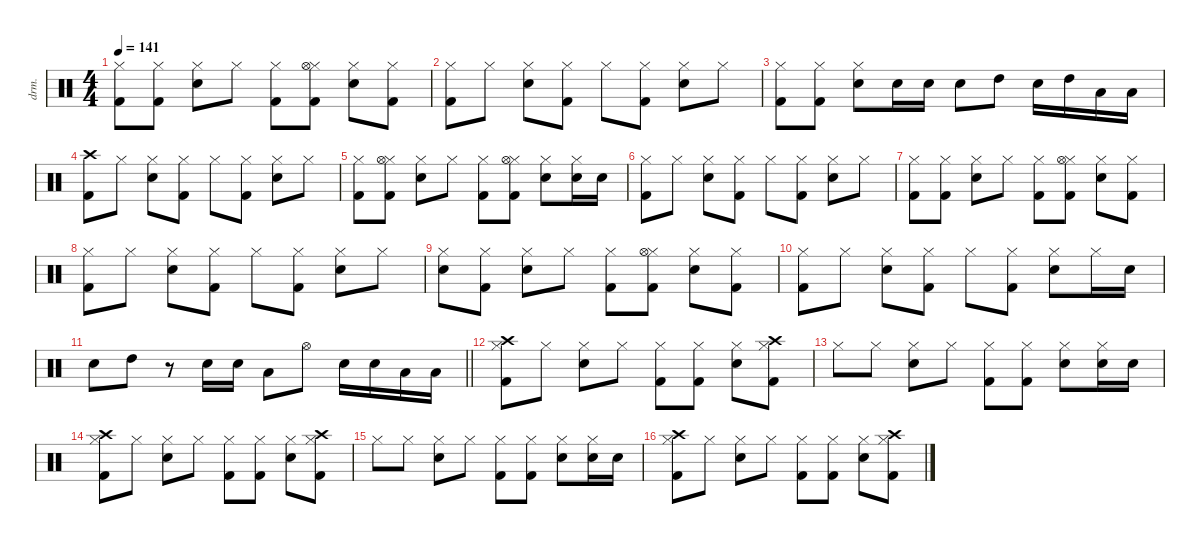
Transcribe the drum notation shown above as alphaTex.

\defaultSystemsLayout 4
\hideDynamics
\bracketExtendMode nobrackets
\otherSystemsTrackNameOrientation horizontal
\track ("Drum" "drm.") {instrument percussion}
\staff {score}
\articulation defaults
\ts (4 4)
\tempo 141
\clef neutral
\ks c
("Hi-Hat (closed)" "Kick (hit) 2").8{dy fff beam Down} ("Hi-Hat (closed)" "Kick (hit) 2").8{beam Down} ("Hi-Hat (closed)" "Snare (hit) 2").8{beam Down} "Hi-Hat (closed)".8{dy f beam Down} ("Hi-Hat (closed)" "Kick (hit) 2").8{dy fff beam Down} ("Hi-Hat (closed)" "Kick (hit) 2" "Hi-Hat (open)").8{beam Down} ("Hi-Hat (closed)" "Snare (hit) 2").8{beam Down} ("Hi-Hat (closed)" "Kick (hit) 2").8{dy f beam Down} |
("Hi-Hat (closed)" "Kick (hit) 2").8{dy fff beam Down} "Hi-Hat (closed)".8{dy f beam Down} ("Hi-Hat (closed)" "Snare (hit) 2").8{dy fff beam Down} ("Hi-Hat (closed)" "Kick (hit) 2").8{dy f beam Down} "Hi-Hat (closed)".8{dy fff beam Down} ("Hi-Hat (closed)" "Kick (hit) 2").8{beam Down} ("Hi-Hat (closed)" "Snare (hit) 2").8{beam Down} "Hi-Hat (closed)".8{dy f beam Down} |
("Hi-Hat (closed)" "Kick (hit) 2").8{dy fff beam Down} ("Hi-Hat (closed)" "Kick (hit) 2").8{beam Down} ("Hi-Hat (closed)" "Snare (hit) 2").8{beam Down} "Snare (hit) 2".16{beam Down} "Snare (hit) 2".16{beam Down} "Snare (hit) 2".8{beam Down} "High Tom (hit)".8{beam Down} "Snare (hit) 2".16{beam Down} "High Tom (hit)".16{beam Down} "Low Tom (hit)".16{beam Down} "Low Floor Tom (hit)".16{beam Down} |
("Kick (hit) 2" "Crash high (hit)").8{beam Down} "Hi-Hat (closed)".8{dy f beam Down} ("Snare (hit) 2" "Hi-Hat (closed)").8{dy fff beam Down} ("Kick (hit) 2" "Hi-Hat (closed)").8{beam Down} "Hi-Hat (closed)".8{dy f beam Down} ("Kick (hit) 2" "Hi-Hat (closed)").8{dy fff beam Down} ("Snare (hit) 2" "Hi-Hat (closed)").8{beam Down} "Hi-Hat (closed)".8{dy f beam Down} |
("Kick (hit) 2" "Hi-Hat (closed)").8{dy fff beam Down} ("Kick (hit) 2" "Hi-Hat (closed)" "Hi-Hat (open)").8{beam Down} ("Snare (hit) 2" "Hi-Hat (closed)").8{beam Down} "Hi-Hat (closed)".8{dy f beam Down} ("Kick (hit) 2" "Hi-Hat (closed)").8{dy fff beam Down} ("Kick (hit) 2" "Hi-Hat (closed)" "Hi-Hat (open)").8{dy f beam Down} ("Snare (hit) 2" "Hi-Hat (closed)").8{dy fff beam Down} ("Snare (hit) 2" "Hi-Hat (closed)").16{beam Down} "Snare (hit) 2".16{beam Down} |
("Kick (hit) 2" "Hi-Hat (closed)").8{beam Down} "Hi-Hat (closed)".8{dy f beam Down} ("Snare (hit) 2" "Hi-Hat (closed)").8{dy fff beam Down} ("Kick (hit) 2" "Hi-Hat (closed)").8{beam Down} "Hi-Hat (closed)".8{dy f beam Down} ("Kick (hit) 2" "Hi-Hat (closed)").8{dy fff beam Down} ("Snare (hit) 2" "Hi-Hat (closed)").8{beam Down} "Hi-Hat (closed)".8{dy f beam Down} |
("Kick (hit) 2" "Hi-Hat (closed)").8{dy fff beam Down} ("Kick (hit) 2" "Hi-Hat (closed)").8{beam Down} ("Snare (hit) 2" "Hi-Hat (closed)").8{beam Down} "Hi-Hat (closed)".8{dy f beam Down} ("Kick (hit) 2" "Hi-Hat (closed)").8{dy fff beam Down} ("Kick (hit) 2" "Hi-Hat (closed)" "Hi-Hat (open)").8{beam Down} ("Snare (hit) 2" "Hi-Hat (closed)").8{beam Down} ("Kick (hit) 2" "Hi-Hat (closed)").8{beam Down} |
("Kick (hit) 2" "Hi-Hat (closed)").8{beam Down} "Hi-Hat (closed)".8{dy f beam Down} ("Snare (hit) 2" "Hi-Hat (closed)").8{dy fff beam Down} ("Kick (hit) 2" "Hi-Hat (closed)").8{beam Down} "Hi-Hat (closed)".8{dy f beam Down} ("Kick (hit) 2" "Hi-Hat (closed)").8{dy fff beam Down} ("Snare (hit) 2" "Hi-Hat (closed)").8{beam Down} "Hi-Hat (closed)".8{dy f beam Down} |
("Snare (hit) 2" "Hi-Hat (closed)").8{dy fff beam Down} ("Kick (hit) 2" "Hi-Hat (closed)").8{beam Down} ("Snare (hit) 2" "Hi-Hat (closed)").8{beam Down} "Hi-Hat (closed)".8{dy f beam Down} ("Kick (hit) 2" "Hi-Hat (closed)").8{dy fff beam Down} ("Kick (hit) 2" "Hi-Hat (closed)" "Hi-Hat (open)").8{beam Down} ("Snare (hit) 2" "Hi-Hat (closed)").8{beam Down} ("Kick (hit) 2" "Hi-Hat (closed)").8{beam Down} |
("Kick (hit) 2" "Hi-Hat (closed)").8{beam Down} "Hi-Hat (closed)".8{dy f beam Down} ("Snare (hit) 2" "Hi-Hat (closed)").8{dy fff beam Down} ("Kick (hit) 2" "Hi-Hat (closed)").8{beam Down} "Hi-Hat (closed)".8{dy f beam Down} ("Kick (hit) 2" "Hi-Hat (closed)").8{dy fff beam Down} ("Snare (hit) 2" "Hi-Hat (closed)").8{beam Down} "Hi-Hat (closed)".16{dy f beam Down} "Snare (hit) 2".16{dy mf beam Down} |
\barLineRight lightlight "Snare (hit) 2".8{dy fff beam Down} "High Tom (hit)".8{beam Down}
r.8{beam Down} "Snare (hit) 2".16{dy mf beam Down} "Snare (hit) 2".16{dy fff beam Down} "Low Tom (hit)".8{beam Down} "Hi-Hat (open)".8{beam Down} "Snare (hit) 2".16{beam Down} "Snare (hit) 2".16{beam Down} "Low Tom (hit)".16{beam Down} "Low Floor Tom (hit)".16{beam Down} |
("Kick (hit) 2" "Hi-Hat (closed)" "Crash high (hit)").8{beam Down} "Hi-Hat (closed)".8{dy f beam Down} ("Snare (hit) 2" "Hi-Hat (closed)").8{dy fff beam Down} "Hi-Hat (closed)".8{dy f beam Down} ("Kick (hit) 2" "Hi-Hat (closed)").8{dy fff beam Down} ("Kick (hit) 2" "Hi-Hat (closed)").8{dy f beam Down} ("Snare (hit) 2" "Hi-Hat (closed)").8{dy fff beam Down} ("Kick (hit) 2" "Hi-Hat (closed)" "Crash high (hit)").8{beam Down} |
"Hi-Hat (closed)".8{dy f beam Down} "Hi-Hat (closed)".8{beam Down} ("Snare (hit) 2" "Hi-Hat (closed)").8{dy fff beam Down} "Hi-Hat (closed)".8{dy f beam Down} ("Kick (hit) 2" "Hi-Hat (closed)").8{dy fff beam Down} ("Kick (hit) 2" "Hi-Hat (closed)").8{beam Down} ("Snare (hit) 2" "Hi-Hat (closed)").8{beam Down} ("Snare (hit) 2" "Hi-Hat (closed)").16{beam Down} "Snare (hit) 2".16{beam Down} |
("Hi-Hat (closed)" "Kick (hit) 2" "Crash high (hit)").8{beam Down} "Hi-Hat (closed)".8{dy f beam Down} ("Hi-Hat (closed)" "Snare (hit) 2").8{dy fff beam Down} "Hi-Hat (closed)".8{dy f beam Down} ("Hi-Hat (closed)" "Kick (hit) 2").8{dy fff beam Down} ("Hi-Hat (closed)" "Kick (hit) 2").8{dy f beam Down} ("Hi-Hat (closed)" "Snare (hit) 2").8{dy fff beam Down} ("Hi-Hat (closed)" "Kick (hit) 2" "Crash high (hit)").8{dy f beam Down} |
"Hi-Hat (closed)".8{dy fff beam Down} "Hi-Hat (closed)".8{dy f beam Down} ("Hi-Hat (closed)" "Snare (hit) 2").8{dy fff beam Down} "Hi-Hat (closed)".8{dy f beam Down} ("Hi-Hat (closed)" "Kick (hit) 2").8{dy fff beam Down} ("Hi-Hat (closed)" "Kick (hit) 2").8{beam Down} ("Hi-Hat (closed)" "Snare (hit) 2").8{beam Down} ("Hi-Hat (closed)" "Snare (hit) 2").16{beam Down} "Snare (hit) 2".16{dy f beam Down} |
("Kick (hit) 2" "Hi-Hat (closed)" "Crash high (hit)").8{dy fff beam Down} "Hi-Hat (closed)".8{dy f beam Down} ("Snare (hit) 2" "Hi-Hat (closed)").8{dy fff beam Down} "Hi-Hat (closed)".8{dy f beam Down} ("Kick (hit) 2" "Hi-Hat (closed)").8{dy fff beam Down} ("Kick (hit) 2" "Hi-Hat (closed)").8{beam Down} ("Snare (hit) 2" "Hi-Hat (closed)").8{beam Down} ("Kick (hit) 2" "Hi-Hat (closed)" "Crash high (hit)").8{beam Down}
